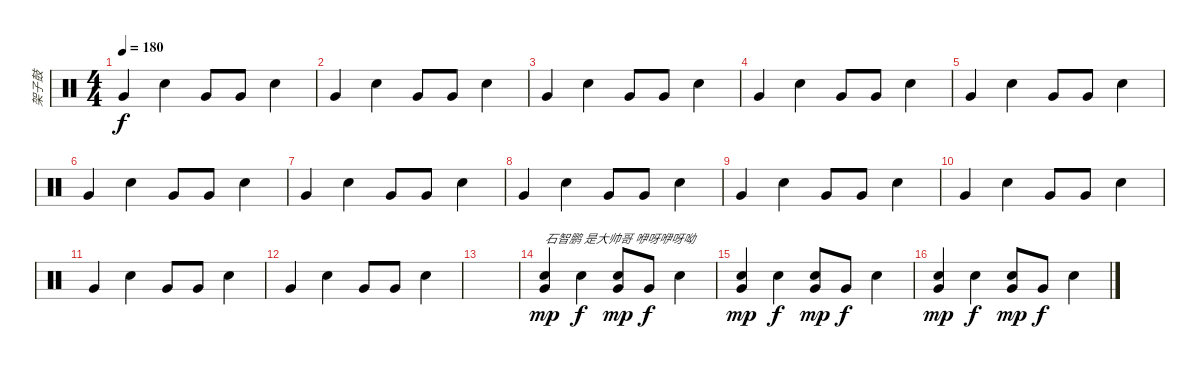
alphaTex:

\track ("架子鼓" "架子鼓") {instrument percussion}
\staff {score}
\articulation defaults
\ts (4 4)
\tempo 180
\clef neutral
\ks c "Very Low Tom (hit)".4{dy f} "Electric Snare (hit)".4 "Very Low Tom (hit)".8 "Very Low Tom (hit)".8 "Electric Snare (hit)".4
|
"Very Low Tom (hit)".4 "Electric Snare (hit)".4 "Very Low Tom (hit)".8 "Very Low Tom (hit)".8 "Electric Snare (hit)".4 |
"Very Low Tom (hit)".4 "Electric Snare (hit)".4 "Very Low Tom (hit)".8 "Very Low Tom (hit)".8 "Electric Snare (hit)".4 |
"Very Low Tom (hit)".4 "Electric Snare (hit)".4 "Very Low Tom (hit)".8 "Very Low Tom (hit)".8 "Electric Snare (hit)".4 |
"Very Low Tom (hit)".4 "Electric Snare (hit)".4 "Very Low Tom (hit)".8 "Very Low Tom (hit)".8 "Electric Snare (hit)".4 |
"Very Low Tom (hit)".4 "Electric Snare (hit)".4 "Very Low Tom (hit)".8 "Very Low Tom (hit)".8 "Electric Snare (hit)".4 |
"Very Low Tom (hit)".4 "Electric Snare (hit)".4 "Very Low Tom (hit)".8 "Very Low Tom (hit)".8 "Electric Snare (hit)".4 |
"Very Low Tom (hit)".4 "Electric Snare (hit)".4 "Very Low Tom (hit)".8 "Very Low Tom (hit)".8 "Electric Snare (hit)".4 |
"Very Low Tom (hit)".4 "Electric Snare (hit)".4 "Very Low Tom (hit)".8 "Very Low Tom (hit)".8 "Electric Snare (hit)".4 |
"Very Low Tom (hit)".4 "Electric Snare (hit)".4 "Very Low Tom (hit)".8 "Very Low Tom (hit)".8 "Electric Snare (hit)".4 |
"Very Low Tom (hit)".4 "Electric Snare (hit)".4 "Very Low Tom (hit)".8 "Very Low Tom (hit)".8 "Electric Snare (hit)".4 |
"Very Low Tom (hit)".4 "Electric Snare (hit)".4 "Very Low Tom (hit)".8 "Very Low Tom (hit)".8 "Electric Snare (hit)".4 |
|
("Electric Snare (hit)" "Very Low Tom (hit)").4{txt "石智鹏 是大帅哥 咿呀咿呀呦 " dy mp} "Electric Snare (hit)".4{dy f} ("Electric Snare (hit)" "Very Low Tom (hit)").8{dy mp} "Very Low Tom (hit)".8{dy f} "Electric Snare (hit)".4 |
("Electric Snare (hit)" "Very Low Tom (hit)").4{dy mp} "Electric Snare (hit)".4{dy f} ("Electric Snare (hit)" "Very Low Tom (hit)").8{dy mp} "Very Low Tom (hit)".8{dy f} "Electric Snare (hit)".4 |
("Electric Snare (hit)" "Very Low Tom (hit)").4{dy mp} "Electric Snare (hit)".4{dy f} ("Electric Snare (hit)" "Very Low Tom (hit)").8{dy mp} "Very Low Tom (hit)".8{dy f} "Electric Snare (hit)".4
